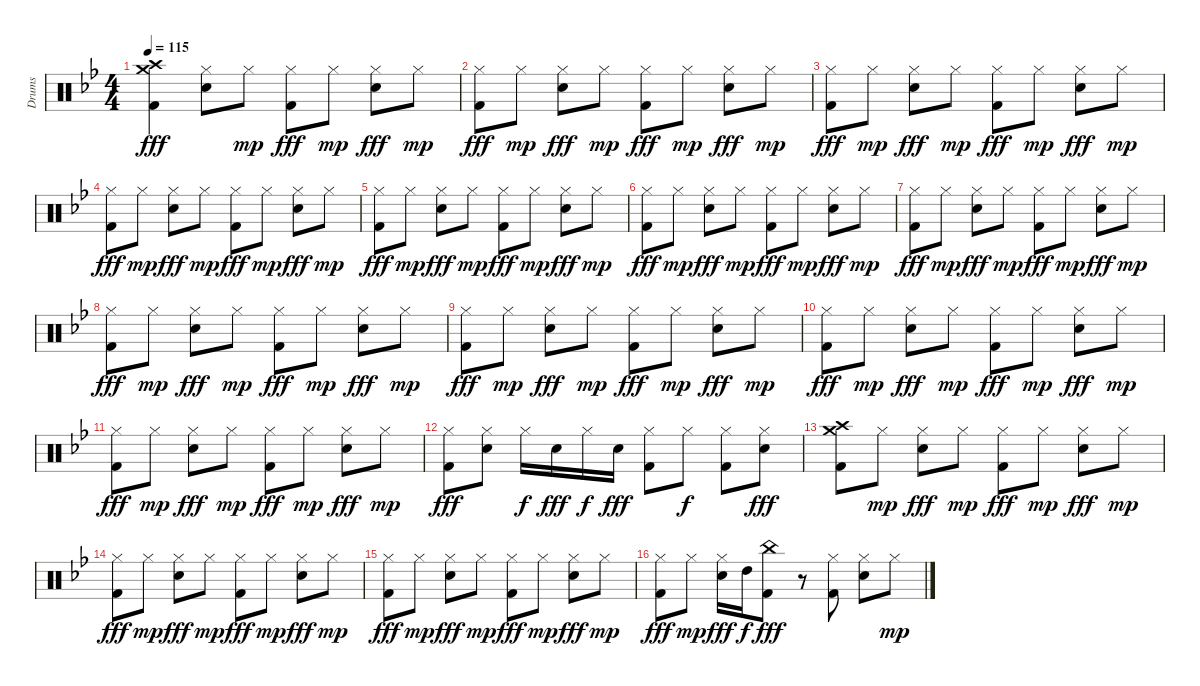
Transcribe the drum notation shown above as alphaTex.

\track ("Drums" "Drums") {instrument percussion}
\staff {score}
\articulation defaults
\ts (4 4)
\tempo 115
\clef neutral
\ks bb
("Crash high (hit)" "Crash medium (hit)" "Kick (hit) 2").4{dy fff} ("Hi-Hat (closed)" "Electric Snare (hit)").8 "Hi-Hat (closed)".8{dy mp} ("Hi-Hat (closed)" "Kick (hit) 2").8{dy fff} "Hi-Hat (closed)".8{dy mp} ("Hi-Hat (closed)" "Electric Snare (hit)").8{dy fff} "Hi-Hat (closed)".8{dy mp} |
("Hi-Hat (closed)" "Kick (hit) 2").8{dy fff} "Hi-Hat (closed)".8{dy mp} ("Hi-Hat (closed)" "Electric Snare (hit)").8{dy fff} "Hi-Hat (closed)".8{dy mp} ("Hi-Hat (closed)" "Kick (hit) 2").8{dy fff} "Hi-Hat (closed)".8{dy mp} ("Hi-Hat (closed)" "Electric Snare (hit)").8{dy fff} "Hi-Hat (closed)".8{dy mp} |
("Hi-Hat (closed)" "Kick (hit) 2").8{dy fff} "Hi-Hat (closed)".8{dy mp} ("Hi-Hat (closed)" "Electric Snare (hit)").8{dy fff} "Hi-Hat (closed)".8{dy mp} ("Hi-Hat (closed)" "Kick (hit) 2").8{dy fff} "Hi-Hat (closed)".8{dy mp} ("Hi-Hat (closed)" "Electric Snare (hit)").8{dy fff} "Hi-Hat (closed)".8{dy mp} |
("Hi-Hat (closed)" "Kick (hit) 2").8{dy fff} "Hi-Hat (closed)".8{dy mp} ("Hi-Hat (closed)" "Electric Snare (hit)").8{dy fff} "Hi-Hat (closed)".8{dy mp} ("Hi-Hat (closed)" "Kick (hit) 2").8{dy fff} "Hi-Hat (closed)".8{dy mp} ("Hi-Hat (closed)" "Electric Snare (hit)").8{dy fff} "Hi-Hat (closed)".8{dy mp} |
("Hi-Hat (closed)" "Kick (hit) 2").8{dy fff} "Hi-Hat (closed)".8{dy mp} ("Hi-Hat (closed)" "Electric Snare (hit)").8{dy fff} "Hi-Hat (closed)".8{dy mp} ("Hi-Hat (closed)" "Kick (hit) 2").8{dy fff} "Hi-Hat (closed)".8{dy mp} ("Hi-Hat (closed)" "Electric Snare (hit)").8{dy fff} "Hi-Hat (closed)".8{dy mp} |
("Hi-Hat (closed)" "Kick (hit) 2").8{dy fff} "Hi-Hat (closed)".8{dy mp} ("Hi-Hat (closed)" "Electric Snare (hit)").8{dy fff} "Hi-Hat (closed)".8{dy mp} ("Hi-Hat (closed)" "Kick (hit) 2").8{dy fff} "Hi-Hat (closed)".8{dy mp} ("Hi-Hat (closed)" "Electric Snare (hit)").8{dy fff} "Hi-Hat (closed)".8{dy mp} |
("Hi-Hat (closed)" "Kick (hit) 2").8{dy fff} "Hi-Hat (closed)".8{dy mp} ("Hi-Hat (closed)" "Electric Snare (hit)").8{dy fff} "Hi-Hat (closed)".8{dy mp} ("Hi-Hat (closed)" "Kick (hit) 2").8{dy fff} "Hi-Hat (closed)".8{dy mp} ("Hi-Hat (closed)" "Electric Snare (hit)").8{dy fff} "Hi-Hat (closed)".8{dy mp} |
("Hi-Hat (closed)" "Kick (hit) 2").8{dy fff} "Hi-Hat (closed)".8{dy mp} ("Hi-Hat (closed)" "Electric Snare (hit)").8{dy fff} "Hi-Hat (closed)".8{dy mp} ("Hi-Hat (closed)" "Kick (hit) 2").8{dy fff} "Hi-Hat (closed)".8{dy mp} ("Hi-Hat (closed)" "Electric Snare (hit)").8{dy fff} "Hi-Hat (closed)".8{dy mp} |
("Hi-Hat (closed)" "Kick (hit) 2").8{dy fff} "Hi-Hat (closed)".8{dy mp} ("Hi-Hat (closed)" "Electric Snare (hit)").8{dy fff} "Hi-Hat (closed)".8{dy mp} ("Hi-Hat (closed)" "Kick (hit) 2").8{dy fff} "Hi-Hat (closed)".8{dy mp} ("Hi-Hat (closed)" "Electric Snare (hit)").8{dy fff} "Hi-Hat (closed)".8{dy mp} |
("Hi-Hat (closed)" "Kick (hit) 2").8{dy fff} "Hi-Hat (closed)".8{dy mp} ("Hi-Hat (closed)" "Electric Snare (hit)").8{dy fff} "Hi-Hat (closed)".8{dy mp} ("Hi-Hat (closed)" "Kick (hit) 2").8{dy fff} "Hi-Hat (closed)".8{dy mp} ("Hi-Hat (closed)" "Electric Snare (hit)").8{dy fff} "Hi-Hat (closed)".8{dy mp} |
("Hi-Hat (closed)" "Kick (hit) 2").8{dy fff} "Hi-Hat (closed)".8{dy mp} ("Hi-Hat (closed)" "Electric Snare (hit)").8{dy fff} "Hi-Hat (closed)".8{dy mp} ("Hi-Hat (closed)" "Kick (hit) 2").8{dy fff} "Hi-Hat (closed)".8{dy mp} ("Hi-Hat (closed)" "Electric Snare (hit)").8{dy fff} "Hi-Hat (closed)".8{dy mp} |
("Hi-Hat (closed)" "Kick (hit) 2").8{dy fff} ("Hi-Hat (closed)" "Electric Snare (hit)").8 "Hi-Hat (closed)".16{dy f} "Electric Snare (hit)".16{dy fff} "Hi-Hat (closed)".16{dy f} "Electric Snare (hit)".16{dy fff} ("Hi-Hat (closed)" "Kick (hit) 2").8 "Hi-Hat (closed)".8{dy f} ("Hi-Hat (closed)" "Kick (hit) 2").8 ("Hi-Hat (closed)" "Electric Snare (hit)").8{dy fff} |
("Crash high (hit)" "Crash medium (hit)" "Kick (hit) 2").8 "Hi-Hat (closed)".8{dy mp} ("Hi-Hat (closed)" "Electric Snare (hit)").8{dy fff} "Hi-Hat (closed)".8{dy mp} ("Hi-Hat (closed)" "Kick (hit) 2").8{dy fff} "Hi-Hat (closed)".8{dy mp} ("Hi-Hat (closed)" "Electric Snare (hit)").8{dy fff} "Hi-Hat (closed)".8{dy mp} |
("Hi-Hat (closed)" "Kick (hit) 2").8{dy fff} "Hi-Hat (closed)".8{dy mp} ("Hi-Hat (closed)" "Electric Snare (hit)").8{dy fff} "Hi-Hat (closed)".8{dy mp} ("Hi-Hat (closed)" "Kick (hit) 2").8{dy fff} "Hi-Hat (closed)".8{dy mp} ("Hi-Hat (closed)" "Electric Snare (hit)").8{dy fff} "Hi-Hat (closed)".8{dy mp} |
("Hi-Hat (closed)" "Kick (hit) 2").8{dy fff} "Hi-Hat (closed)".8{dy mp} ("Hi-Hat (closed)" "Electric Snare (hit)").8{dy fff} "Hi-Hat (closed)".8{dy mp} ("Hi-Hat (closed)" "Kick (hit) 2").8{dy fff} "Hi-Hat (closed)".8{dy mp} ("Hi-Hat (closed)" "Electric Snare (hit)").8{dy fff} "Hi-Hat (closed)".8{dy mp} |
("Hi-Hat (closed)" "Kick (hit) 2").8{dy fff} "Hi-Hat (closed)".8{dy mp} ("Hi-Hat (closed)" "Electric Snare (hit)").16{dy fff} "High Tom (hit)".16{dy f} ("China (hit)" "Kick (hit) 2").8{dy fff} r.8 ("Hi-Hat (closed)" "Kick (hit) 2").8 ("Hi-Hat (closed)" "Electric Snare (hit)").8 "Hi-Hat (closed)".8{dy mp}
